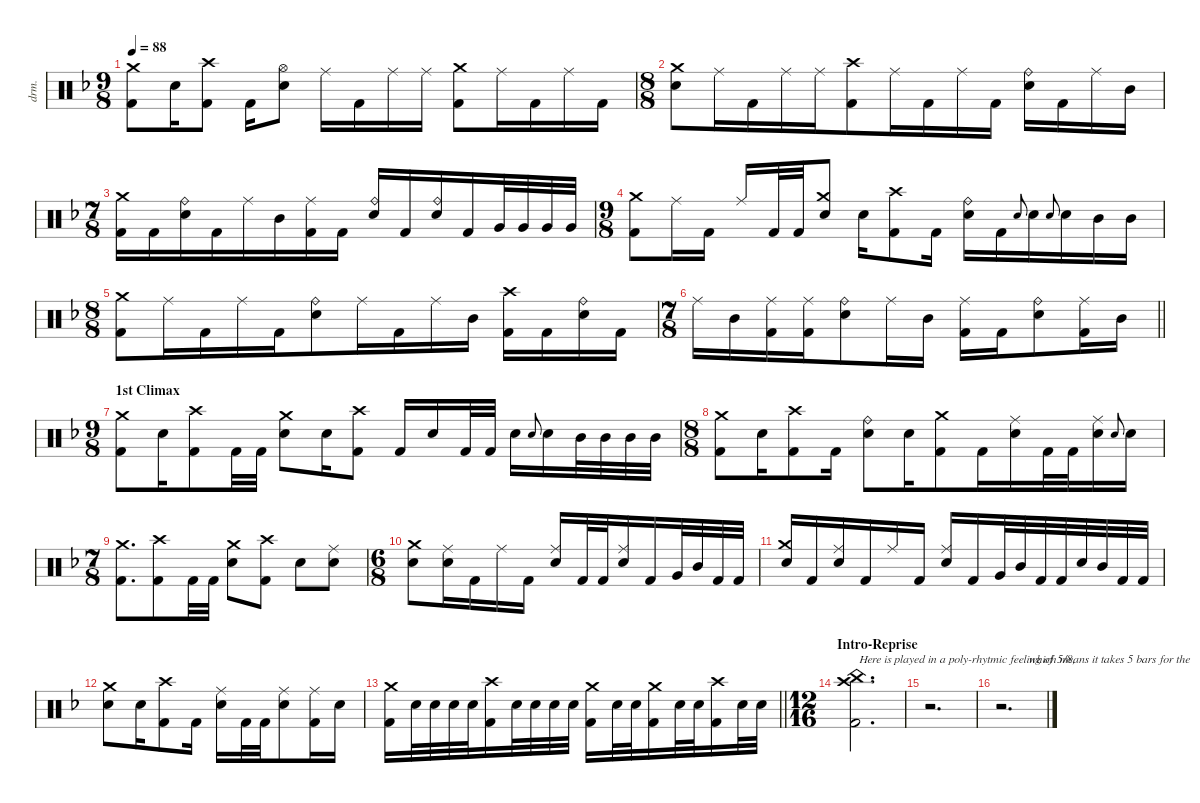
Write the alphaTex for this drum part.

\defaultSystemsLayout 4
\hideDynamics
\bracketExtendMode nobrackets
\otherSystemsTrackNameOrientation horizontal
\track ("Drums" "drm.") {instrument percussion}
\staff {score}
\articulation defaults
\ts (9 8)
\beaming (8 2 2 2 3)
\tempo 88
\clef neutral
\ks dminor
("Crash medium (hit)"{acc forcenatural} "Kick (hit) 2"{acc forcenatural}).8{dy f beam Down} "Snare (hit) 2"{acc forcenatural}.16{beam Down} ("Crash high (hit)"{acc forcenatural} "Kick (hit) 2"{acc forcenatural}).8{beam Down} "Kick (hit) 2"{acc forcenatural}.16{beam Down} ("Hi-Hat (open)"{acc forcenatural} "Snare (hit) 2"{acc forcenatural}).8{beam Down} "Ride (middle)"{acc forcenatural}.16{beam Down} "Kick (hit) 2"{acc forcenatural}.16{beam Down} "Ride (middle)"{acc forcenatural}.16{beam Down} "Ride (middle)"{acc forcenatural}.16{beam Down} ("Crash medium (hit)"{acc forcenatural} "Kick (hit) 2"{acc forcenatural}).8{beam Down} "Ride (middle)"{acc forcenatural}.16{beam Down} "Kick (hit) 2"{acc forcenatural}.16{beam Down} "Ride (middle)"{acc forcenatural}.16{beam Down} "Kick (hit) 2"{acc forcenatural}.16{beam Down} |
\ts (8 8)
\beaming (8 2 2 2 2)
("Crash medium (hit)"{acc forcenatural} "Snare (hit) 2"{acc forcenatural}).8{beam Down beam merge} "Ride (middle)"{acc forcenatural}.16{beam Down} "Kick (hit) 2"{acc forcenatural}.16{beam Down beam merge} "Ride (middle)"{acc forcenatural}.16{beam Down} "Ride (middle)"{acc forcenatural}.16{beam Down} ("Crash high (hit)"{acc forcenatural} "Kick (hit) 2"{acc forcenatural}).8{beam Down beam merge} "Ride (middle)"{acc forcenatural}.16{beam Down} "Kick (hit) 2"{acc forcenatural}.16{beam Down beam merge} "Ride (middle)"{acc forcenatural}.16{beam Down} "Kick (hit) 2"{acc forcenatural}.16{beam Down} ("Ride (bell)"{acc forcenatural} "Snare (hit) 2"{acc forcenatural}).16{beam Down} "Kick (hit) 2"{acc forcenatural}.16{beam Down beam merge} "Ride (middle)"{acc forcenatural}.16{beam Down} "Mid Tom (hit)"{acc forcenatural}.16{beam Down} |
\ts (7 8)
\beaming (8 2 2 2 2)
("Crash medium (hit)"{acc forcenatural} "Kick (hit) 2"{acc forcenatural}).16{beam Down} "Kick (hit) 2"{acc forcenatural}.16{beam Down beam merge} ("Ride (bell)"{acc forcenatural} "Snare (hit) 2"{acc forcenatural}).16{beam Down} "Kick (hit) 2"{acc forcenatural}.16{beam Down beam merge} "Ride (middle)"{acc forcenatural}.16{beam Down} "Mid Tom (hit)"{acc forcenatural}.16{beam Down beam merge} ("Ride (middle)"{acc forcenatural} "Kick (hit) 2"{acc forcenatural}).16{beam Down} "Kick (hit) 2"{acc forcenatural}.16{beam Down beam split} ("Ride (bell)"{acc forcenatural} "Snare (hit) 2"{acc forcenatural}).16{beam Up} "Kick (hit) 2"{acc forcenatural}.16{beam Up beam merge} ("Ride (bell)"{acc forcenatural} "Snare (hit) 2"{acc forcenatural}).16{beam Up} "Kick (hit) 2"{acc forcenatural}.16{beam Up beam merge} "Very Low Tom (hit)"{acc forcenatural}.32{beam Up} "Very Low Tom (hit)"{acc forcenatural}.32{beam Up} "Very Low Tom (hit)"{acc forcenatural}.32{beam Up} "Very Low Tom (hit)"{acc forcenatural}.32{beam Up} |
\ts (9 8)
\beaming (8 2 2 2 3)
("Crash medium (hit)"{acc forcenatural} "Kick (hit) 2"{acc forcenatural}).8{beam Down} "Ride (middle)"{acc forcenatural}.16{beam Down} "Kick (hit) 2"{acc forcenatural}.16{beam Down} "Ride (middle)"{acc forcenatural}.16{beam Up} "Kick (hit) 2"{acc forcenatural}.32{beam Up} "Kick (hit) 2"{acc forcenatural}.32{beam Up} ("Crash medium (hit)"{acc forcenatural} "Snare (hit) 2"{acc forcenatural}).8{beam Up} "Snare (hit) 2"{acc forcenatural}.16{beam Down} ("Crash high (hit)"{acc forcenatural} "Kick (hit) 2"{acc forcenatural}).8{beam Down} "Kick (hit) 2"{acc forcenatural}.16{beam Down} ("Ride (bell)"{acc forcenatural} "Snare (hit) 2"{acc forcenatural}).16{beam Down} "Kick (hit) 2"{acc forcenatural}.16{beam Down} "Snare (hit) 2"{acc forcenatural}.8{gr onbeat dy mf beam Up} "Snare (hit) 2"{acc forcenatural}.16{dy f beam Down} "Snare (hit) 2"{acc forcenatural}.8{gr onbeat dy mf beam Up} "Snare (hit) 2"{acc forcenatural}.16{dy f beam Down} "Mid Tom (hit)"{acc forcenatural}.16{beam Down} "Mid Tom (hit)"{acc forcenatural}.16{beam Down} |
\ts (8 8)
\beaming (8 2 2 2 2)
("Crash medium (hit)"{acc forcenatural} "Kick (hit) 2"{acc forcenatural}).8{beam Down beam merge} "Ride (middle)"{acc forcenatural}.16{beam Down} "Kick (hit) 2"{acc forcenatural}.16{beam Down beam merge} "Ride (middle)"{acc forcenatural}.16{beam Down} "Kick (hit) 2"{acc forcenatural}.16{beam Down} ("Ride (bell)"{acc forcenatural} "Snare (hit) 2"{acc forcenatural}).8{beam Down beam merge} "Ride (middle)"{acc forcenatural}.16{beam Down} "Kick (hit) 2"{acc forcenatural}.16{beam Down beam merge} "Ride (middle)"{acc forcenatural}.16{beam Down} "Mid Tom (hit)"{acc forcenatural}.16{beam Down} ("Crash high (hit)"{acc forcenatural} "Kick (hit) 2"{acc forcenatural}).16{beam Down} "Kick (hit) 2"{acc forcenatural}.16{beam Down beam merge} ("Ride (bell)"{acc forcenatural} "Snare (hit) 2"{acc forcenatural}).16{beam Down} "Kick (hit) 2"{acc forcenatural}.16{beam Down} |
\ts (7 8)
\beaming (8 3 2 2)
\barLineRight lightlight "Ride (middle)"{acc forcenatural}.16{beam Down} "Mid Tom (hit)"{acc forcenatural}.16{beam Down beam merge}
("Ride (middle)"{acc forcenatural} "Kick (hit) 2"{acc forcenatural}).16{beam Down} ("Ride (middle)"{acc forcenatural} "Kick (hit) 2"{acc forcenatural}).16{beam Down beam merge} ("Ride (bell)"{acc forcenatural} "Snare (hit) 2"{acc forcenatural}).8{beam Down beam merge} "Ride (middle)"{acc forcenatural}.16{beam Down} "Mid Tom (hit)"{acc forcenatural}.16{beam Down beam split} ("Ride (middle)"{acc forcenatural} "Kick (hit) 2"{acc forcenatural}).16{beam Down} "Kick (hit) 2"{acc forcenatural}.16{beam Down beam merge} ("Ride (bell)"{acc forcenatural} "Snare (hit) 2"{acc forcenatural}).8{beam Down beam merge} ("Ride (middle)"{acc forcenatural} "Kick (hit) 2"{acc forcenatural}).16{beam Down} "Mid Tom (hit)"{acc forcenatural}.16{beam Down} |
\ts (9 8)
\beaming (8 3 2 2 2)
\section ("" "1st Climax")
("Crash medium (hit)"{acc forcenatural} "Kick (hit) 2"{acc forcenatural}).8{beam Down} "Snare (hit) 2"{acc forcenatural}.16{beam Down} ("Crash high (hit)"{acc forcenatural} "Kick (hit) 2"{acc forcenatural}).8{beam Down} "Kick (hit) 2"{acc forcenatural}.32{beam Down} "Kick (hit) 2"{acc forcenatural}.32{beam Down} ("Crash medium (hit)"{acc forcenatural} "Snare (hit) 2"{acc forcenatural}).8{beam Down} "Snare (hit) 2"{acc forcenatural}.16{beam Down} ("Crash high (hit)"{acc forcenatural} "Kick (hit) 2"{acc forcenatural}).8{beam Down} "Kick (hit) 2"{acc forcenatural}.16{beam Up} "Snare (hit) 2"{acc forcenatural}.16{beam Up} "Kick (hit) 2"{acc forcenatural}.32{beam Up} "Kick (hit) 2"{acc forcenatural}.32{beam Up} "Snare (hit) 2"{acc forcenatural}.16{beam Down} "Snare (hit) 2"{acc forcenatural}.8{gr onbeat dy mf beam Up} "Snare (hit) 2"{acc forcenatural}.16{dy f beam Down} "Mid Tom (hit)"{acc forcenatural}.32{beam Down} "Mid Tom (hit)"{acc forcenatural}.32{beam Down} "Mid Tom (hit)"{acc forcenatural}.32{beam Down} "Mid Tom (hit)"{acc forcenatural}.32{beam Down} |
\ts (8 8)
\beaming (8 3 2 2 1)
("Crash medium (hit)"{acc forcenatural} "Kick (hit) 2"{acc forcenatural}).8{beam Down beam merge} "Snare (hit) 2"{acc forcenatural}.16{beam Down} ("Crash high (hit)"{acc forcenatural} "Kick (hit) 2"{acc forcenatural}).8{beam Down beam merge} "Kick (hit) 2"{acc forcenatural}.16{beam Down} ("Ride (bell)"{acc forcenatural} "Snare (hit) 2"{acc forcenatural}).8{beam Down beam merge} "Snare (hit) 2"{acc forcenatural}.16{beam Down} ("Crash medium (hit)"{acc forcenatural} "Kick (hit) 2"{acc forcenatural}).8{beam Down beam merge} "Kick (hit) 2"{acc forcenatural}.16{beam Down} ("Ride (middle)"{acc forcenatural} "Snare (hit) 2"{acc forcenatural}).16{beam Down} "Kick (hit) 2"{acc forcenatural}.32{beam Down} "Kick (hit) 2"{acc forcenatural}.32{beam Down beam merge} ("Ride (middle)"{acc forcenatural} "Snare (hit) 2"{acc forcenatural}).16{beam Down} "Snare (hit) 2"{acc forcenatural}.8{gr onbeat dy mf beam Up} "Snare (hit) 2"{acc forcenatural}.16{dy f beam Down} |
\ts (7 8)
\beaming (8 3 2 2)
("Crash medium (hit)"{acc forcenatural} "Kick (hit) 2"{acc forcenatural}).8{d beam Down beam merge} ("Crash high (hit)"{acc forcenatural} "Kick (hit) 2"{acc forcenatural}).8{beam Down beam merge} "Kick (hit) 2"{acc forcenatural}.32{beam Down} "Kick (hit) 2"{acc forcenatural}.32{beam Down} ("Crash medium (hit)"{acc forcenatural} "Snare (hit) 2"{acc forcenatural}).8{beam Down} ("Crash high (hit)"{acc forcenatural} "Kick (hit) 2"{acc forcenatural}).8{beam Down} "Snare (hit) 2"{acc forcenatural}.8{beam Down} ("Ride (middle)"{acc forcenatural} "Snare (hit) 2"{acc forcenatural}).8{beam Down} |
\ts (6 8)
\beaming (8 3 3)
("Crash medium (hit)"{acc forcenatural} "Snare (hit) 2"{acc forcenatural}).8{beam Down} ("Ride (middle)"{acc forcenatural} "Snare (hit) 2"{acc forcenatural}).16{beam Down} "Kick (hit) 2"{acc forcenatural}.16{beam Down} "Ride (middle)"{acc forcenatural}.16{beam Down} "Kick (hit) 2"{acc forcenatural}.16{beam Down} ("Ride (middle)"{acc forcenatural} "Snare (hit) 2"{acc forcenatural}).16{beam Up} "Kick (hit) 2"{acc forcenatural}.32{beam Up} "Kick (hit) 2"{acc forcenatural}.32{beam Up} ("Ride (middle)"{acc forcenatural} "Snare (hit) 2"{acc forcenatural}).16{beam Up} "Kick (hit) 2"{acc forcenatural}.16{beam Up} "Very Low Tom (hit)"{acc forcenatural}.32{beam Up} "Mid Tom (hit)"{acc forcenatural}.32{beam Up} "Kick (hit) 2"{acc forcenatural}.32{beam Up} "Kick (hit) 2"{acc forcenatural}.32{beam Up} |
("Crash medium (hit)"{acc forcenatural} "Snare (hit) 2"{acc forcenatural}).16{beam Up} "Kick (hit) 2"{acc forcenatural}.16{beam Up} ("Ride (middle)"{acc forcenatural} "Snare (hit) 2"{acc forcenatural}).16{beam Up} "Kick (hit) 2"{acc forcenatural}.16{beam Up} "Ride (middle)"{acc forcenatural}.16{beam Up} "Kick (hit) 2"{acc forcenatural}.16{beam Up} ("Ride (middle)"{acc forcenatural} "Snare (hit) 2"{acc forcenatural}).16{beam Up} "Kick (hit) 2"{acc forcenatural}.16{beam Up} "Very Low Tom (hit)"{acc forcenatural}.32{beam Up} "Mid Tom (hit)"{acc forcenatural}.32{beam Up} "Kick (hit) 2"{acc forcenatural}.32{beam Up} "Kick (hit) 2"{acc forcenatural}.32{beam Up} "Snare (hit) 2"{acc forcenatural}.32{beam Up} "Mid Tom (hit)"{acc forcenatural}.32{beam Up} "Kick (hit) 2"{acc forcenatural}.32{beam Up} "Kick (hit) 2"{acc forcenatural}.32{beam Up} |
("Crash medium (hit)"{acc forcenatural} "Snare (hit) 2"{acc forcenatural}).8{beam Down} "Snare (hit) 2"{acc forcenatural}.16{beam Down} ("Crash high (hit)"{acc forcenatural} "Kick (hit) 2"{acc forcenatural}).8{beam Down} "Kick (hit) 2"{acc forcenatural}.16{beam Down} ("Ride (middle)"{acc forcenatural} "Snare (hit) 2"{acc forcenatural}).16{beam Down} "Kick (hit) 2"{acc forcenatural}.32{beam Down} "Kick (hit) 2"{acc forcenatural}.32{beam Down} ("Ride (middle)"{acc forcenatural} "Snare (hit) 2"{acc forcenatural}).8{beam Down} ("Ride (middle)"{acc forcenatural} "Kick (hit) 2"{acc forcenatural}).16{beam Down} "Snare (hit) 2"{acc forcenatural}.16{beam Down} |
\barLineRight lightlight
("Crash medium (hit)"{acc forcenatural} "Kick (hit) 2"{acc forcenatural}).16{beam Down} "Snare (hit) 2"{acc forcenatural}.32{beam Down} "Snare (hit) 2"{acc forcenatural}.32{beam Down} "Snare (hit) 2"{acc forcenatural}.32{beam Down} "Snare (hit) 2"{acc forcenatural}.32{beam Down} ("Crash high (hit)"{acc forcenatural} "Kick (hit) 2"{acc forcenatural}).16{beam Down} "Snare (hit) 2"{acc forcenatural}.32{beam Down} "Snare (hit) 2"{acc forcenatural}.32{beam Down} "Snare (hit) 2"{acc forcenatural}.32{beam Down} "Snare (hit) 2"{acc forcenatural}.32{beam Down} ("Crash medium (hit)"{acc forcenatural} "Kick (hit) 2"{acc forcenatural}).16{beam Down} "Snare (hit) 2"{acc forcenatural}.32{beam Down} "Snare (hit) 2"{acc forcenatural}.32{beam Down} ("Crash medium (hit)"{acc forcenatural} "Kick (hit) 2"{acc forcenatural}).16{beam Down} "Snare (hit) 2"{acc forcenatural}.32{beam Down} "Snare (hit) 2"{acc forcenatural}.32{beam Down} ("Crash high (hit)"{acc forcenatural} "Kick (hit) 2"{acc forcenatural}).16{beam Down} "Snare (hit) 2"{acc forcenatural}.32{beam Down} "Snare (hit) 2"{acc forcenatural}.32{beam Down} |
\ts (12 16)
\beaming (8 6)
\section ("" "Intro-Reprise")
("China (hit)"{acc forcenatural} "Crash high (hit)"{acc forcenatural} "Kick (hit) 2"{acc forcenatural}).2{d txt "Here is played in a poly-rhytmic feeling of 5/8," beam Down} |
r.2{d beam Down} |
r.2{d txt "         which means it takes 5 bars for the" beam Down}
